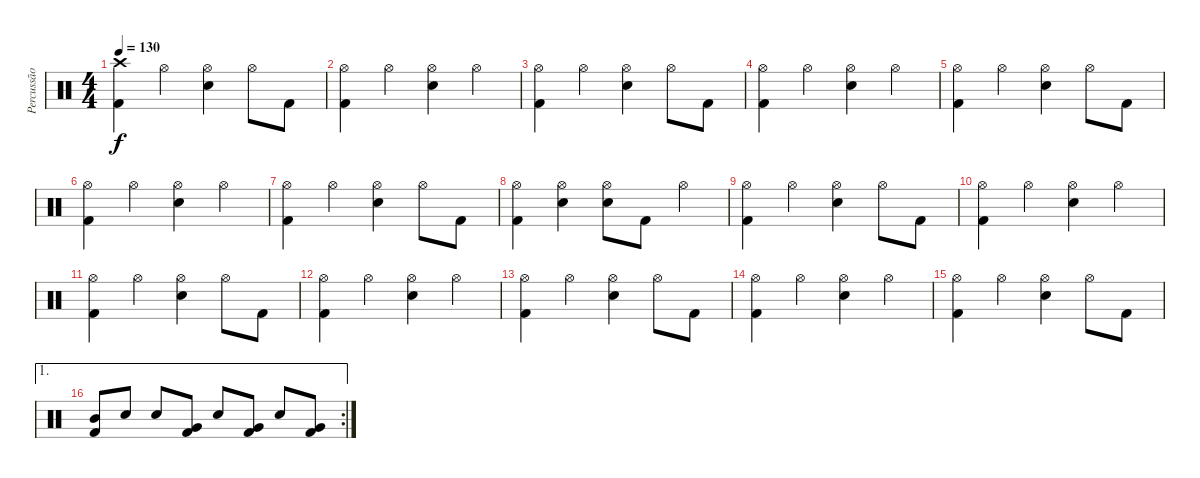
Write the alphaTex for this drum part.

\track ("Percussão" "Percussão") {instrument percussion}
\staff {score}
\articulation defaults
\ts (4 4)
\tempo 130
\clef neutral
\ks c
("Crash high (hit)" "Kick (hit) 2").4{dy f} "Hi-Hat (open)".4 ("Hi-Hat (open)" "Electric Snare (hit)").4 "Hi-Hat (open)".8 "Kick (hit) 2".8 |
("Hi-Hat (open)" "Kick (hit) 2").4 "Hi-Hat (open)".4 ("Hi-Hat (open)" "Electric Snare (hit)").4 "Hi-Hat (open)".4 |
("Hi-Hat (open)" "Kick (hit) 2").4 "Hi-Hat (open)".4 ("Hi-Hat (open)" "Electric Snare (hit)").4 "Hi-Hat (open)".8 "Kick (hit) 2".8 |
("Hi-Hat (open)" "Kick (hit) 2").4 "Hi-Hat (open)".4 ("Hi-Hat (open)" "Electric Snare (hit)").4 "Hi-Hat (open)".4 |
("Hi-Hat (open)" "Kick (hit) 2").4 "Hi-Hat (open)".4 ("Hi-Hat (open)" "Electric Snare (hit)").4 "Hi-Hat (open)".8 "Kick (hit) 2".8 |
("Hi-Hat (open)" "Kick (hit) 2").4 "Hi-Hat (open)".4 ("Hi-Hat (open)" "Electric Snare (hit)").4 "Hi-Hat (open)".4 |
("Hi-Hat (open)" "Kick (hit) 2").4 "Hi-Hat (open)".4 ("Hi-Hat (open)" "Electric Snare (hit)").4 "Hi-Hat (open)".8 "Kick (hit) 2".8 |
("Hi-Hat (open)" "Kick (hit) 2").4 ("Hi-Hat (open)" "Electric Snare (hit)").4 ("Hi-Hat (open)" "Electric Snare (hit)").8 "Kick (hit) 2".8 "Hi-Hat (open)".4 |
("Hi-Hat (open)" "Kick (hit) 2").4 "Hi-Hat (open)".4 ("Hi-Hat (open)" "Electric Snare (hit)").4 "Hi-Hat (open)".8 "Kick (hit) 2".8 |
("Hi-Hat (open)" "Kick (hit) 2").4 "Hi-Hat (open)".4 ("Hi-Hat (open)" "Electric Snare (hit)").4 "Hi-Hat (open)".4 |
("Hi-Hat (open)" "Kick (hit) 2").4 "Hi-Hat (open)".4 ("Hi-Hat (open)" "Electric Snare (hit)").4 "Hi-Hat (open)".8 "Kick (hit) 2".8 |
("Hi-Hat (open)" "Kick (hit) 2").4 "Hi-Hat (open)".4 ("Hi-Hat (open)" "Electric Snare (hit)").4 "Hi-Hat (open)".4 |
("Hi-Hat (open)" "Kick (hit) 2").4 "Hi-Hat (open)".4 ("Hi-Hat (open)" "Electric Snare (hit)").4 "Hi-Hat (open)".8 "Kick (hit) 2".8 |
("Hi-Hat (open)" "Kick (hit) 2").4 "Hi-Hat (open)".4 ("Hi-Hat (open)" "Electric Snare (hit)").4 "Hi-Hat (open)".4 |
("Hi-Hat (open)" "Kick (hit) 2").4 "Hi-Hat (open)".4 ("Hi-Hat (open)" "Electric Snare (hit)").4 "Hi-Hat (open)".8 "Kick (hit) 2".8 |
\ae 1
\rc 2
("Mid Tom (hit)" "Kick (hit) 2").8 "Electric Snare (hit)".8 "Electric Snare (hit)".8 ("Very Low Tom (hit)" "Kick (hit) 2").8 "Electric Snare (hit)".8 ("Very Low Tom (hit)" "Kick (hit) 2").8 "Electric Snare (hit)".8 ("Very Low Tom (hit)" "Kick (hit) 2").8
